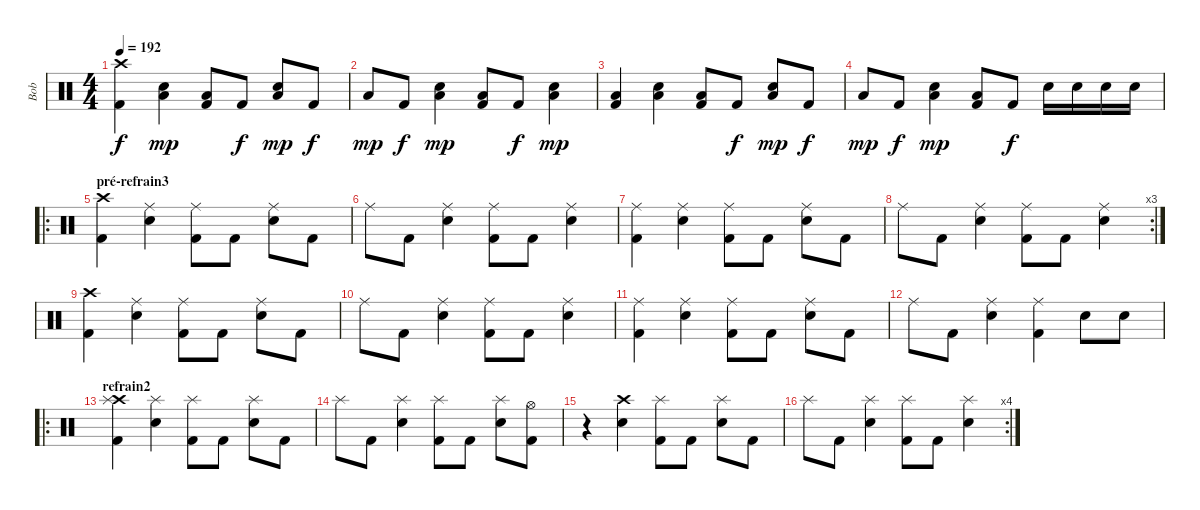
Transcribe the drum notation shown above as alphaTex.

\track ("Bob" "Bob") {instrument percussion}
\staff {score}
\articulation defaults
\ts (4 4)
\tempo 192
\clef neutral
\ks c
("Crash high (hit)" "Kick (hit) 2").4{dy f} ("Low Tom (hit)" "Electric Snare (hit)").4{dy mp} ("Low Tom (hit)" "Kick (hit) 2").8 "Kick (hit) 2".8{dy f} ("Low Tom (hit)" "Electric Snare (hit)").8{dy mp} "Kick (hit) 2".8{dy f} |
"Low Tom (hit)".8{dy mp} "Kick (hit) 2".8{dy f} ("Low Tom (hit)" "Electric Snare (hit)").4{dy mp} ("Low Tom (hit)" "Kick (hit) 2").8 "Kick (hit) 2".8{dy f} ("Low Tom (hit)" "Electric Snare (hit)").4{dy mp} |
("Low Tom (hit)" "Kick (hit) 2").4 ("Low Tom (hit)" "Electric Snare (hit)").4 ("Low Tom (hit)" "Kick (hit) 2").8 "Kick (hit) 2".8{dy f} ("Low Tom (hit)" "Electric Snare (hit)").8{dy mp} "Kick (hit) 2".8{dy f} |
"Low Tom (hit)".8{dy mp} "Kick (hit) 2".8{dy f} ("Low Tom (hit)" "Electric Snare (hit)").4{dy mp} ("Low Tom (hit)" "Kick (hit) 2").8 "Kick (hit) 2".8{dy f} "Electric Snare (hit)".16 "Electric Snare (hit)".16 "Electric Snare (hit)".16 "Electric Snare (hit)".16 |
\ro
\section ("" "pré-refrain3")
("Crash high (hit)" "Kick (hit) 2").4 ("Ride (middle)" "Electric Snare (hit)").4 ("Ride (middle)" "Kick (hit) 2").8 "Kick (hit) 2".8 ("Ride (middle)" "Electric Snare (hit)").8 "Kick (hit) 2".8 |
"Ride (middle)".8 "Kick (hit) 2".8 ("Ride (middle)" "Electric Snare (hit)").4 ("Ride (middle)" "Kick (hit) 2").8 "Kick (hit) 2".8 ("Ride (middle)" "Electric Snare (hit)").4 |
("Ride (middle)" "Kick (hit) 2").4 ("Ride (middle)" "Electric Snare (hit)").4 ("Ride (middle)" "Kick (hit) 2").8 "Kick (hit) 2".8 ("Ride (middle)" "Electric Snare (hit)").8 "Kick (hit) 2".8 |
\rc 3 "Ride (middle)".8 "Kick (hit) 2".8
("Ride (middle)" "Electric Snare (hit)").4 ("Ride (middle)" "Kick (hit) 2").8 "Kick (hit) 2".8 ("Ride (middle)" "Electric Snare (hit)").4 |
("Crash high (hit)" "Kick (hit) 2").4 ("Ride (middle)" "Electric Snare (hit)").4 ("Ride (middle)" "Kick (hit) 2").8 "Kick (hit) 2".8 ("Ride (middle)" "Electric Snare (hit)").8 "Kick (hit) 2".8 |
"Ride (middle)".8 "Kick (hit) 2".8 ("Ride (middle)" "Electric Snare (hit)").4 ("Ride (middle)" "Kick (hit) 2").8 "Kick (hit) 2".8 ("Ride (middle)" "Electric Snare (hit)").4 |
("Ride (middle)" "Kick (hit) 2").4 ("Ride (middle)" "Electric Snare (hit)").4 ("Ride (middle)" "Kick (hit) 2").8 "Kick (hit) 2".8 ("Ride (middle)" "Electric Snare (hit)").8 "Kick (hit) 2".8 |
"Ride (middle)".8 "Kick (hit) 2".8 ("Ride (middle)" "Electric Snare (hit)").4 ("Ride (middle)" "Kick (hit) 2").4 "Electric Snare (hit)".8 "Electric Snare (hit)".8 |
\ro
\section ("" "refrain2")
("Crash high (hit)" "Splash (hit)" "Kick (hit) 2").4 ("Splash (hit)" "Electric Snare (hit)").4 ("Splash (hit)" "Kick (hit) 2").8 "Kick (hit) 2".8 ("Splash (hit)" "Electric Snare (hit)").8 "Kick (hit) 2".8 |
"Splash (hit)".8 "Kick (hit) 2".8 ("Splash (hit)" "Electric Snare (hit)").4 ("Splash (hit)" "Kick (hit) 2").8 "Kick (hit) 2".8 ("Splash (hit)" "Electric Snare (hit)").8 ("Hi-Hat (open)" "Kick (hit) 2").8 |
r.4 ("Crash high (hit)" "Electric Snare (hit)").4 ("Splash (hit)" "Kick (hit) 2").8 "Kick (hit) 2".8 ("Splash (hit)" "Electric Snare (hit)").8 "Kick (hit) 2".8 |
\rc 4 "Splash (hit)".8 "Kick (hit) 2".8
("Splash (hit)" "Electric Snare (hit)").4 ("Splash (hit)" "Kick (hit) 2").8 "Kick (hit) 2".8 ("Splash (hit)" "Electric Snare (hit)").4
